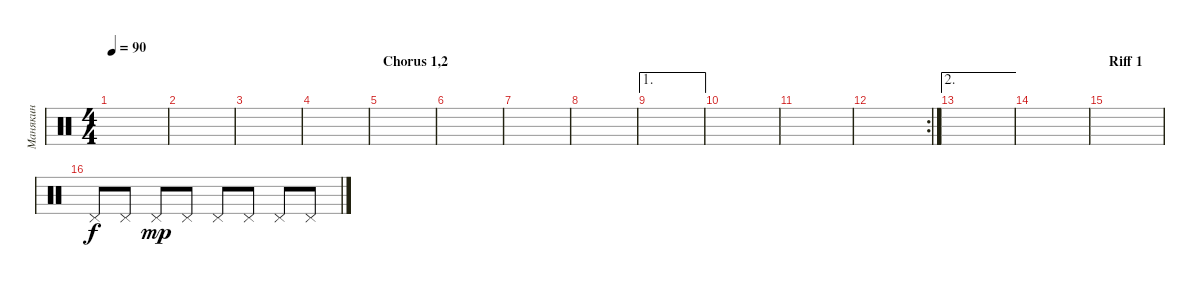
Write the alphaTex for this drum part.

\track ("Манякин" "Манякин") {instrument percussion}
\staff {score}
\articulation defaults
\ts (4 4)
\tempo 90
\clef neutral
\ks c
|
|
|
|
\section ("" "Chorus 1,2")
|
|
|
|
\ae 1
|
|
|
\rc 2
|
\ae 2
|
|
\section ("" "Riff 1")
|
"Pedal Hi-Hat (hit)".8 "Pedal Hi-Hat (hit)".8 "Pedal Hi-Hat (hit)".8{dy mp} "Pedal Hi-Hat (hit)".8 "Pedal Hi-Hat (hit)".8 "Pedal Hi-Hat (hit)".8 "Pedal Hi-Hat (hit)".8 "Pedal Hi-Hat (hit)".8
